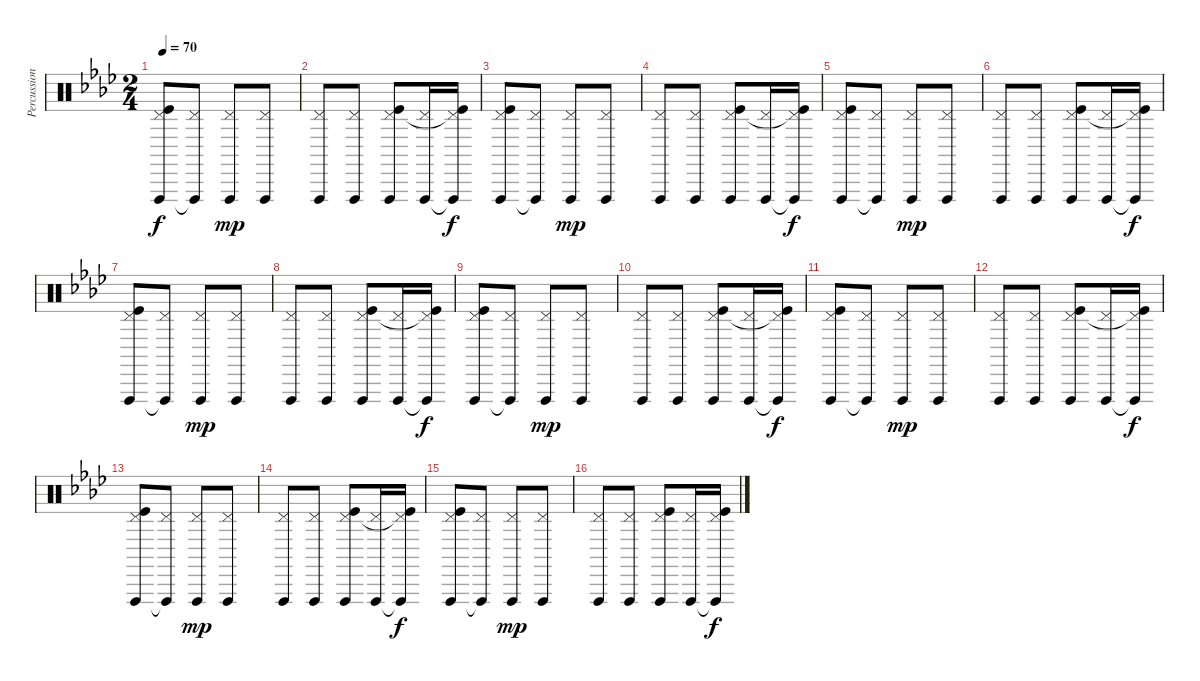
\track ("Percussion" "Percussion") {instrument percussion}
\staff {score}
\articulation defaults
\ts (2 4)
\tempo 70
\clef neutral
\ks fminor
("Vibraslap (hit)" "Kick (hit)" "Pedal Hi-Hat (hit)").8{dy f} ("Vibraslap (hit)"{t} "Pedal Hi-Hat (hit)").8 ("Vibraslap (hit)" "Pedal Hi-Hat (hit)").8{dy mp} ("Vibraslap (hit)" "Pedal Hi-Hat (hit)").8 |
("Vibraslap (hit)" "Pedal Hi-Hat (hit)").8 ("Vibraslap (hit)" "Pedal Hi-Hat (hit)").8 ("Vibraslap (hit)" "Kick (hit)" "Pedal Hi-Hat (hit)").8 ("Vibraslap (hit)" "Pedal Hi-Hat (hit)").16 ("Vibraslap (hit)"{t} "Kick (hit)" "Pedal Hi-Hat (hit)"{t}).16{dy f} |
("Vibraslap (hit)" "Kick (hit)" "Pedal Hi-Hat (hit)").8 ("Vibraslap (hit)"{t} "Pedal Hi-Hat (hit)").8 ("Vibraslap (hit)" "Pedal Hi-Hat (hit)").8{dy mp} ("Vibraslap (hit)" "Pedal Hi-Hat (hit)").8 |
("Vibraslap (hit)" "Pedal Hi-Hat (hit)").8 ("Vibraslap (hit)" "Pedal Hi-Hat (hit)").8 ("Vibraslap (hit)" "Kick (hit)" "Pedal Hi-Hat (hit)").8 ("Vibraslap (hit)" "Pedal Hi-Hat (hit)").16 ("Vibraslap (hit)"{t} "Kick (hit)" "Pedal Hi-Hat (hit)"{t}).16{dy f} |
("Vibraslap (hit)" "Kick (hit)" "Pedal Hi-Hat (hit)").8 ("Vibraslap (hit)"{t} "Pedal Hi-Hat (hit)").8 ("Vibraslap (hit)" "Pedal Hi-Hat (hit)").8{dy mp} ("Vibraslap (hit)" "Pedal Hi-Hat (hit)").8 |
("Vibraslap (hit)" "Pedal Hi-Hat (hit)").8 ("Vibraslap (hit)" "Pedal Hi-Hat (hit)").8 ("Vibraslap (hit)" "Kick (hit)" "Pedal Hi-Hat (hit)").8 ("Vibraslap (hit)" "Pedal Hi-Hat (hit)").16 ("Vibraslap (hit)"{t} "Kick (hit)" "Pedal Hi-Hat (hit)"{t}).16{dy f} |
("Vibraslap (hit)" "Kick (hit)" "Pedal Hi-Hat (hit)").8 ("Vibraslap (hit)"{t} "Pedal Hi-Hat (hit)").8 ("Vibraslap (hit)" "Pedal Hi-Hat (hit)").8{dy mp} ("Vibraslap (hit)" "Pedal Hi-Hat (hit)").8 |
("Vibraslap (hit)" "Pedal Hi-Hat (hit)").8 ("Vibraslap (hit)" "Pedal Hi-Hat (hit)").8 ("Vibraslap (hit)" "Kick (hit)" "Pedal Hi-Hat (hit)").8 ("Vibraslap (hit)" "Pedal Hi-Hat (hit)").16 ("Vibraslap (hit)"{t} "Kick (hit)" "Pedal Hi-Hat (hit)"{t}).16{dy f} |
("Vibraslap (hit)" "Kick (hit)" "Pedal Hi-Hat (hit)").8 ("Vibraslap (hit)"{t} "Pedal Hi-Hat (hit)").8 ("Vibraslap (hit)" "Pedal Hi-Hat (hit)").8{dy mp} ("Vibraslap (hit)" "Pedal Hi-Hat (hit)").8 |
("Vibraslap (hit)" "Pedal Hi-Hat (hit)").8 ("Vibraslap (hit)" "Pedal Hi-Hat (hit)").8 ("Vibraslap (hit)" "Kick (hit)" "Pedal Hi-Hat (hit)").8 ("Vibraslap (hit)" "Pedal Hi-Hat (hit)").16 ("Vibraslap (hit)"{t} "Kick (hit)" "Pedal Hi-Hat (hit)"{t}).16{dy f} |
("Vibraslap (hit)" "Kick (hit)" "Pedal Hi-Hat (hit)").8 ("Vibraslap (hit)"{t} "Pedal Hi-Hat (hit)").8 ("Vibraslap (hit)" "Pedal Hi-Hat (hit)").8{dy mp} ("Vibraslap (hit)" "Pedal Hi-Hat (hit)").8 |
("Vibraslap (hit)" "Pedal Hi-Hat (hit)").8 ("Vibraslap (hit)" "Pedal Hi-Hat (hit)").8 ("Vibraslap (hit)" "Kick (hit)" "Pedal Hi-Hat (hit)").8 ("Vibraslap (hit)" "Pedal Hi-Hat (hit)").16 ("Vibraslap (hit)"{t} "Kick (hit)" "Pedal Hi-Hat (hit)"{t}).16{dy f} |
("Vibraslap (hit)" "Kick (hit)" "Pedal Hi-Hat (hit)").8 ("Vibraslap (hit)"{t} "Pedal Hi-Hat (hit)").8 ("Vibraslap (hit)" "Pedal Hi-Hat (hit)").8{dy mp} ("Vibraslap (hit)" "Pedal Hi-Hat (hit)").8 |
("Vibraslap (hit)" "Pedal Hi-Hat (hit)").8 ("Vibraslap (hit)" "Pedal Hi-Hat (hit)").8 ("Vibraslap (hit)" "Kick (hit)" "Pedal Hi-Hat (hit)").8 ("Vibraslap (hit)" "Pedal Hi-Hat (hit)").16 ("Vibraslap (hit)"{t} "Kick (hit)" "Pedal Hi-Hat (hit)"{t}).16{dy f} |
("Vibraslap (hit)" "Kick (hit)" "Pedal Hi-Hat (hit)").8 ("Vibraslap (hit)"{t} "Pedal Hi-Hat (hit)").8 ("Vibraslap (hit)" "Pedal Hi-Hat (hit)").8{dy mp} ("Vibraslap (hit)" "Pedal Hi-Hat (hit)").8 |
("Vibraslap (hit)" "Pedal Hi-Hat (hit)").8 ("Vibraslap (hit)" "Pedal Hi-Hat (hit)").8 ("Vibraslap (hit)" "Kick (hit)" "Pedal Hi-Hat (hit)").8 ("Vibraslap (hit)" "Pedal Hi-Hat (hit)").16 ("Vibraslap (hit)"{t} "Kick (hit)" "Pedal Hi-Hat (hit)").16{dy f}
